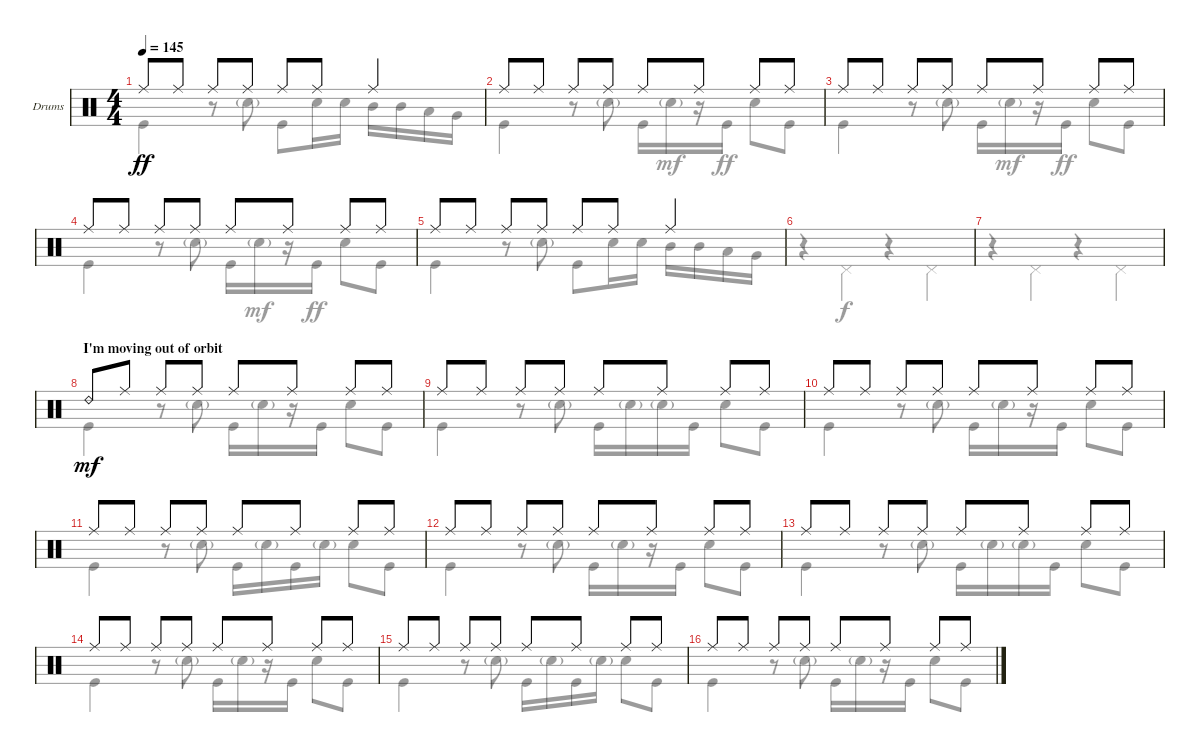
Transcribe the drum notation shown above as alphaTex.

\defaultSystemsLayout 4
\bracketExtendMode groupsimilarinstruments
\firstSystemTrackNameOrientation horizontal
\otherSystemsTrackNameOrientation horizontal
\track ("Drumkit" "Drums") {instrument percussion}
\staff {score}
\articulation defaults
\voice
\ts (4 4)
\tempo 145
\clef neutral
\ks c "Ride (middle)".8{dy ff} "Ride (middle)".8 "Ride (middle)".8 "Ride (middle)".8 "Ride (middle)".8 "Ride (middle)".8 "Ride (middle)".4
|
"Ride (middle)".8 "Ride (middle)".8 "Ride (middle)".8 "Ride (middle)".8 "Ride (middle)".8 "Ride (middle)".8 "Ride (middle)".8 "Ride (middle)".8 |
"Ride (middle)".8 "Ride (middle)".8 "Ride (middle)".8 "Ride (middle)".8 "Ride (middle)".8 "Ride (middle)".8 "Ride (middle)".8 "Ride (middle)".8 |
"Ride (middle)".8 "Ride (middle)".8 "Ride (middle)".8 "Ride (middle)".8 "Ride (middle)".8 "Ride (middle)".8 "Ride (middle)".8 "Ride (middle)".8 |
"Ride (middle)".8 "Ride (middle)".8 "Ride (middle)".8 "Ride (middle)".8 "Ride (middle)".8 "Ride (middle)".8 "Ride (middle)".4 |
|
|
\section ("" "I'm moving out of orbit")
"Ride (bell) 2".8{dy mf} "Ride (middle)".8 "Ride (middle)".8 "Ride (middle)".8 "Ride (middle)".8 "Ride (middle)".8 "Ride (middle)".8 "Ride (middle)".8 |
"Ride (middle)".8 "Ride (middle)".8 "Ride (middle)".8 "Ride (middle)".8 "Ride (middle)".8 "Ride (middle)".8 "Ride (middle)".8 "Ride (middle)".8 |
"Ride (middle)".8 "Ride (middle)".8 "Ride (middle)".8 "Ride (middle)".8 "Ride (middle)".8 "Ride (middle)".8 "Ride (middle)".8 "Ride (middle)".8 |
"Ride (middle)".8 "Ride (middle)".8 "Ride (middle)".8 "Ride (middle)".8 "Ride (middle)".8 "Ride (middle)".8 "Ride (middle)".8 "Ride (middle)".8 |
"Ride (middle)".8 "Ride (middle)".8 "Ride (middle)".8 "Ride (middle)".8 "Ride (middle)".8 "Ride (middle)".8 "Ride (middle)".8 "Ride (middle)".8 |
"Ride (middle)".8 "Ride (middle)".8 "Ride (middle)".8 "Ride (middle)".8 "Ride (middle)".8 "Ride (middle)".8 "Ride (middle)".8 "Ride (middle)".8 |
"Ride (middle)".8 "Ride (middle)".8 "Ride (middle)".8 "Ride (middle)".8 "Ride (middle)".8 "Ride (middle)".8 "Ride (middle)".8 "Ride (middle)".8 |
"Ride (middle)".8 "Ride (middle)".8 "Ride (middle)".8 "Ride (middle)".8 "Ride (middle)".8 "Ride (middle)".8 "Ride (middle)".8 "Ride (middle)".8 |
"Ride (middle)".8 "Ride (middle)".8 "Ride (middle)".8 "Ride (middle)".8 "Ride (middle)".8 "Ride (middle)".8 "Ride (middle)".8 "Ride (middle)".8
\voice
\clef neutral
\ottava regular
\simile none
\ks c "Kick (hit)".4{dy ff}
r.8 "Snare (hit) 2"{g}.8 "Kick (hit)".8 "Snare (hit) 2".16 "Snare (hit) 2".16 "Mid Tom (hit)".16 "Mid Tom (hit)".16 "Low Tom (hit)".16 "Very Low Tom (hit)".16 |
"Kick (hit)".4 r.8 "Snare (hit) 2"{g}.8 "Kick (hit)".16 "Snare (hit) 2"{g}.16{dy mf} r.16 "Kick (hit)".16{dy ff} "Snare (hit) 2".8 "Kick (hit)".8 |
"Kick (hit)".4 r.8 "Snare (hit) 2"{g}.8 "Kick (hit)".16 "Snare (hit) 2"{g}.16{dy mf} r.16 "Kick (hit)".16{dy ff} "Snare (hit) 2".8 "Kick (hit)".8 |
"Kick (hit)".4 r.8 "Snare (hit) 2"{g}.8 "Kick (hit)".16 "Snare (hit) 2"{g}.16{dy mf} r.16 "Kick (hit)".16{dy ff} "Snare (hit) 2".8 "Kick (hit)".8 |
"Kick (hit)".4 r.8 "Snare (hit) 2"{g}.8 "Kick (hit)".8 "Snare (hit) 2".16 "Snare (hit) 2".16 "Mid Tom (hit)".16 "Mid Tom (hit)".16 "Low Tom (hit)".16 "Very Low Tom (hit)".16 |
r.4 "Pedal Hi-Hat (hit)".4{dy f} r.4 "Pedal Hi-Hat (hit)".4 |
r.4 "Pedal Hi-Hat (hit)".4 r.4 "Pedal Hi-Hat (hit)".4 |
"Kick (hit)".4{dy mf} r.8 "Snare (hit) 2"{g}.8 "Kick (hit)".16 "Snare (hit) 2"{g}.16 r.16 "Kick (hit)".16 "Snare (hit) 2".8 "Kick (hit)".8 |
"Kick (hit)".4 r.8 "Snare (hit) 2"{g}.8 "Kick (hit)".16 "Snare (hit) 2"{g}.16 "Snare (hit) 2"{g}.16 "Kick (hit)".16 "Snare (hit) 2".8 "Kick (hit)".8 |
"Kick (hit)".4 r.8 "Snare (hit) 2"{g}.8 "Kick (hit)".16 "Snare (hit) 2"{g}.16 r.16 "Kick (hit)".16 "Snare (hit) 2".8 "Kick (hit)".8 |
"Kick (hit)".4 r.8 "Snare (hit) 2"{g}.8 "Kick (hit)".16 "Snare (hit) 2"{g}.16 "Kick (hit)".16 "Snare (hit) 2"{g}.16 "Snare (hit) 2".8 "Kick (hit)".8 |
"Kick (hit)".4 r.8 "Snare (hit) 2"{g}.8 "Kick (hit)".16 "Snare (hit) 2"{g}.16 r.16 "Kick (hit)".16 "Snare (hit) 2".8 "Kick (hit)".8 |
"Kick (hit)".4 r.8 "Snare (hit) 2"{g}.8 "Kick (hit)".16 "Snare (hit) 2"{g}.16 "Snare (hit) 2"{g}.16 "Kick (hit)".16 "Snare (hit) 2".8 "Kick (hit)".8 |
"Kick (hit)".4 r.8 "Snare (hit) 2"{g}.8 "Kick (hit)".16 "Snare (hit) 2"{g}.16 r.16 "Kick (hit)".16 "Snare (hit) 2".8 "Kick (hit)".8 |
"Kick (hit)".4 r.8 "Snare (hit) 2"{g}.8 "Kick (hit)".16 "Snare (hit) 2"{g}.16 "Kick (hit)".16 "Snare (hit) 2"{g}.16 "Snare (hit) 2".8 "Kick (hit)".8 |
"Kick (hit)".4 r.8 "Snare (hit) 2"{g}.8 "Kick (hit)".16 "Snare (hit) 2"{g}.16 r.16 "Kick (hit)".16 "Snare (hit) 2".8 "Kick (hit)".8
